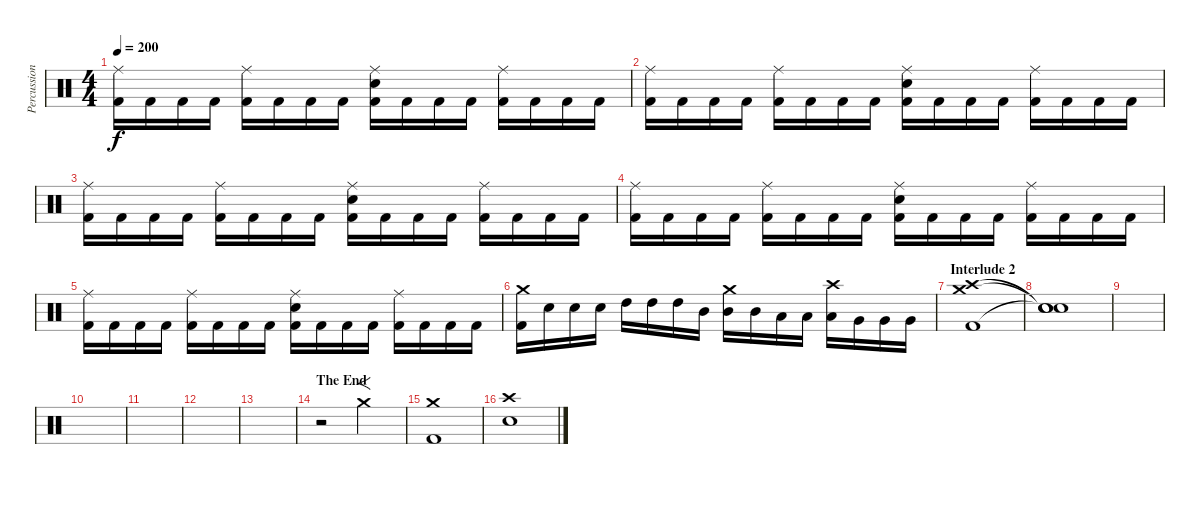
\track ("Percussions" "Percussion") {instrument percussion}
\staff {score}
\articulation defaults
\ts (4 4)
\tempo 200
\clef neutral
\ks c
("Ride (middle)" "Kick (hit) 2").16{dy f} "Kick (hit) 2".16 "Kick (hit) 2".16 "Kick (hit) 2".16 ("Ride (middle)" "Kick (hit) 2").16 "Kick (hit) 2".16 "Kick (hit) 2".16 "Kick (hit) 2".16 ("Ride (middle)" "Electric Snare (hit)" "Kick (hit) 2").16 "Kick (hit) 2".16 "Kick (hit) 2".16 "Kick (hit) 2".16 ("Ride (middle)" "Kick (hit) 2").16 "Kick (hit) 2".16 "Kick (hit) 2".16 "Kick (hit) 2".16 |
("Ride (middle)" "Kick (hit) 2").16 "Kick (hit) 2".16 "Kick (hit) 2".16 "Kick (hit) 2".16 ("Ride (middle)" "Kick (hit) 2").16 "Kick (hit) 2".16 "Kick (hit) 2".16 "Kick (hit) 2".16 ("Ride (middle)" "Electric Snare (hit)" "Kick (hit) 2").16 "Kick (hit) 2".16 "Kick (hit) 2".16 "Kick (hit) 2".16 ("Ride (middle)" "Kick (hit) 2").16 "Kick (hit) 2".16 "Kick (hit) 2".16 "Kick (hit) 2".16 |
("Ride (middle)" "Kick (hit) 2").16 "Kick (hit) 2".16 "Kick (hit) 2".16 "Kick (hit) 2".16 ("Ride (middle)" "Kick (hit) 2").16 "Kick (hit) 2".16 "Kick (hit) 2".16 "Kick (hit) 2".16 ("Ride (middle)" "Electric Snare (hit)" "Kick (hit) 2").16 "Kick (hit) 2".16 "Kick (hit) 2".16 "Kick (hit) 2".16 ("Ride (middle)" "Kick (hit) 2").16 "Kick (hit) 2".16 "Kick (hit) 2".16 "Kick (hit) 2".16 |
("Ride (middle)" "Kick (hit) 2").16 "Kick (hit) 2".16 "Kick (hit) 2".16 "Kick (hit) 2".16 ("Ride (middle)" "Kick (hit) 2").16 "Kick (hit) 2".16 "Kick (hit) 2".16 "Kick (hit) 2".16 ("Ride (middle)" "Electric Snare (hit)" "Kick (hit) 2").16 "Kick (hit) 2".16 "Kick (hit) 2".16 "Kick (hit) 2".16 ("Ride (middle)" "Kick (hit) 2").16 "Kick (hit) 2".16 "Kick (hit) 2".16 "Kick (hit) 2".16 |
("Ride (middle)" "Kick (hit) 2").16 "Kick (hit) 2".16 "Kick (hit) 2".16 "Kick (hit) 2".16 ("Ride (middle)" "Kick (hit) 2").16 "Kick (hit) 2".16 "Kick (hit) 2".16 "Kick (hit) 2".16 ("Ride (middle)" "Electric Snare (hit)" "Kick (hit) 2").16 "Kick (hit) 2".16 "Kick (hit) 2".16 "Kick (hit) 2".16 ("Ride (middle)" "Kick (hit) 2").16 "Kick (hit) 2".16 "Kick (hit) 2".16 "Kick (hit) 2".16 |
("Crash medium (hit)" "Kick (hit) 2").16 "Electric Snare (hit)".16 "Electric Snare (hit)".16 "Electric Snare (hit)".16 "High Tom (hit)".16 "High Tom (hit)".16 "High Tom (hit)".16 "Mid Tom (hit)".16 ("Crash medium (hit)" "Mid Tom (hit)").16 "Mid Tom (hit)".16 "Low Tom (hit)".16 "Low Tom (hit)".16 ("Crash high (hit)" "Low Tom (hit)").16 "Very Low Tom (hit)".16 "Very Low Tom (hit)".16 "Very Low Tom (hit)".16 |
\section ("" "Interlude 2")
("Crash medium (hit)" "Crash high (hit)" "Kick (hit) 2").1 |
("Snare (hit)"{t} "Snare (hit)"{t} "Snare (hit)"{t}).1 |
|
|
|
|
|
\section ("" "The End")
r.2 "Crash medium (hit)".2{f} |
("Crash medium (hit)" "Kick (hit) 2").1 |
("Crash high (hit)" "Electric Snare (hit)").1
